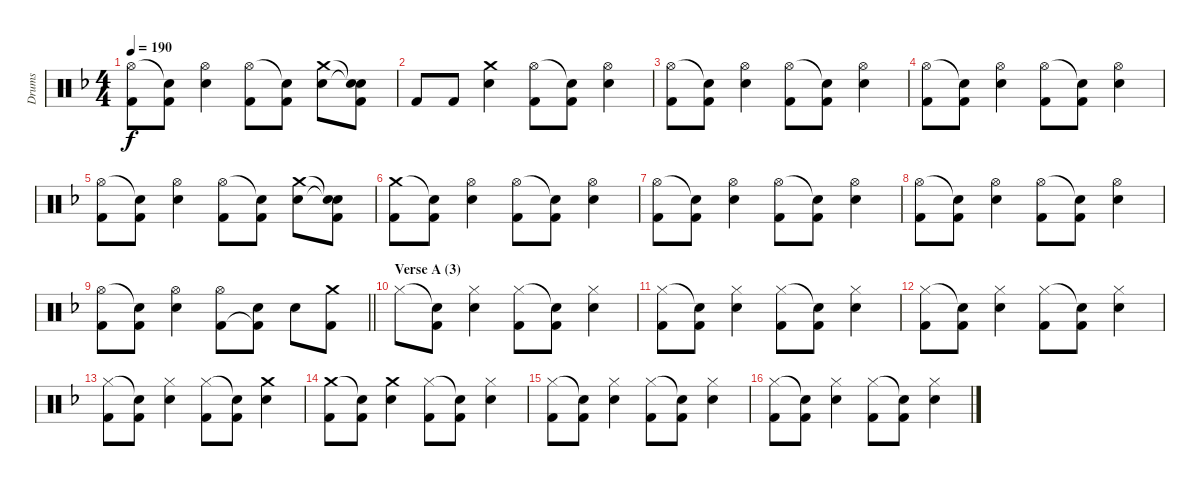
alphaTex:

\track ("Drums" "Drums") {instrument percussion}
\staff {score}
\articulation defaults
\ts (4 4)
\tempo 190
\clef neutral
\ks dminor
("Hi-Hat (open)" "Kick (hit) 2").8{dy f} ("Snare (hit)"{t} "Kick (hit) 2").8 ("Hi-Hat (open)" "Electric Snare (hit)").4 ("Hi-Hat (open)" "Kick (hit) 2").8 ("Snare (hit)"{t} "Kick (hit) 2").8 ("Crash medium (hit)" "Electric Snare (hit)").8 ("Snare (hit)"{t} "Snare (hit)"{t} "Kick (hit) 2").8 |
"Kick (hit) 2".8 "Kick (hit) 2".8 ("Crash medium (hit)" "Electric Snare (hit)").4 ("Hi-Hat (open)" "Kick (hit) 2").8 ("Snare (hit)"{t} "Kick (hit) 2").8 ("Hi-Hat (open)" "Electric Snare (hit)").4 |
("Hi-Hat (open)" "Kick (hit) 2").8 ("Snare (hit)"{t} "Kick (hit) 2").8 ("Hi-Hat (open)" "Electric Snare (hit)").4 ("Hi-Hat (open)" "Kick (hit) 2").8 ("Snare (hit)"{t} "Kick (hit) 2").8 ("Hi-Hat (open)" "Electric Snare (hit)").4 |
("Hi-Hat (open)" "Kick (hit) 2").8 ("Snare (hit)"{t} "Kick (hit) 2").8 ("Hi-Hat (open)" "Electric Snare (hit)").4 ("Hi-Hat (open)" "Kick (hit) 2").8 ("Snare (hit)"{t} "Kick (hit) 2").8 ("Hi-Hat (open)" "Electric Snare (hit)").4 |
("Hi-Hat (open)" "Kick (hit) 2").8 ("Snare (hit)"{t} "Kick (hit) 2").8 ("Hi-Hat (open)" "Electric Snare (hit)").4 ("Hi-Hat (open)" "Kick (hit) 2").8 ("Snare (hit)"{t} "Kick (hit) 2").8 ("Crash medium (hit)" "Electric Snare (hit)").8 ("Snare (hit)"{t} "Snare (hit)"{t} "Kick (hit) 2").8 |
("Crash medium (hit)" "Kick (hit) 2").8 ("Snare (hit)"{t} "Kick (hit) 2").8 ("Hi-Hat (open)" "Electric Snare (hit)").4 ("Hi-Hat (open)" "Kick (hit) 2").8 ("Snare (hit)"{t} "Kick (hit) 2").8 ("Hi-Hat (open)" "Electric Snare (hit)").4 |
("Hi-Hat (open)" "Kick (hit) 2").8 ("Snare (hit)"{t} "Kick (hit) 2").8 ("Hi-Hat (open)" "Electric Snare (hit)").4 ("Hi-Hat (open)" "Kick (hit) 2").8 ("Snare (hit)"{t} "Kick (hit) 2").8 ("Hi-Hat (open)" "Electric Snare (hit)").4 |
("Hi-Hat (open)" "Kick (hit) 2").8 ("Snare (hit)"{t} "Kick (hit) 2").8 ("Hi-Hat (open)" "Electric Snare (hit)").4 ("Hi-Hat (open)" "Kick (hit) 2").8 ("Snare (hit)"{t} "Kick (hit) 2").8 ("Hi-Hat (open)" "Electric Snare (hit)").4 |
\barLineRight lightlight
("Hi-Hat (open)" "Kick (hit) 2").8 ("Snare (hit)"{t} "Kick (hit) 2").8 ("Hi-Hat (open)" "Electric Snare (hit)").4 ("Hi-Hat (open)" "Kick (hit) 2").8 ("Electric Snare (hit)" "Kick (hit) 2"{t}).8 "Electric Snare (hit)".8 ("Crash medium (hit)" "Kick (hit) 2").8 |
\section ("" "Verse A (3)")
"Hi-Hat (closed)".8 ("Snare (hit)"{t} "Kick (hit) 2").8 ("Hi-Hat (closed)" "Electric Snare (hit)").4 ("Hi-Hat (closed)" "Kick (hit) 2").8 ("Snare (hit)"{t} "Kick (hit) 2").8 ("Hi-Hat (closed)" "Electric Snare (hit)").4 |
("Hi-Hat (closed)" "Kick (hit) 2").8 ("Snare (hit)"{t} "Kick (hit) 2").8 ("Hi-Hat (closed)" "Electric Snare (hit)").4 ("Hi-Hat (closed)" "Kick (hit) 2").8 ("Snare (hit)"{t} "Kick (hit) 2").8 ("Hi-Hat (closed)" "Electric Snare (hit)").4 |
("Hi-Hat (closed)" "Kick (hit) 2").8 ("Snare (hit)"{t} "Kick (hit) 2").8 ("Hi-Hat (closed)" "Electric Snare (hit)").4 ("Hi-Hat (closed)" "Kick (hit) 2").8 ("Snare (hit)"{t} "Kick (hit) 2").8 ("Hi-Hat (closed)" "Electric Snare (hit)").4 |
("Hi-Hat (closed)" "Kick (hit) 2").8 ("Snare (hit)"{t} "Kick (hit) 2").8 ("Hi-Hat (closed)" "Electric Snare (hit)").4 ("Hi-Hat (closed)" "Kick (hit) 2").8 ("Snare (hit)"{t} "Kick (hit) 2").8 ("Crash medium (hit)" "Electric Snare (hit)").4 |
("Crash medium (hit)" "Kick (hit) 2").8 ("Snare (hit)"{t} "Kick (hit) 2").8 ("Crash medium (hit)" "Electric Snare (hit)").4 ("Hi-Hat (closed)" "Kick (hit) 2").8 ("Snare (hit)"{t} "Kick (hit) 2").8 ("Hi-Hat (closed)" "Electric Snare (hit)").4 |
("Hi-Hat (closed)" "Kick (hit) 2").8 ("Snare (hit)"{t} "Kick (hit) 2").8 ("Hi-Hat (closed)" "Electric Snare (hit)").4 ("Hi-Hat (closed)" "Kick (hit) 2").8 ("Snare (hit)"{t} "Kick (hit) 2").8 ("Hi-Hat (closed)" "Electric Snare (hit)").4 |
("Hi-Hat (closed)" "Kick (hit) 2").8 ("Snare (hit)"{t} "Kick (hit) 2").8 ("Hi-Hat (closed)" "Electric Snare (hit)").4 ("Hi-Hat (closed)" "Kick (hit) 2").8 ("Snare (hit)"{t} "Kick (hit) 2").8 ("Hi-Hat (closed)" "Electric Snare (hit)").4
